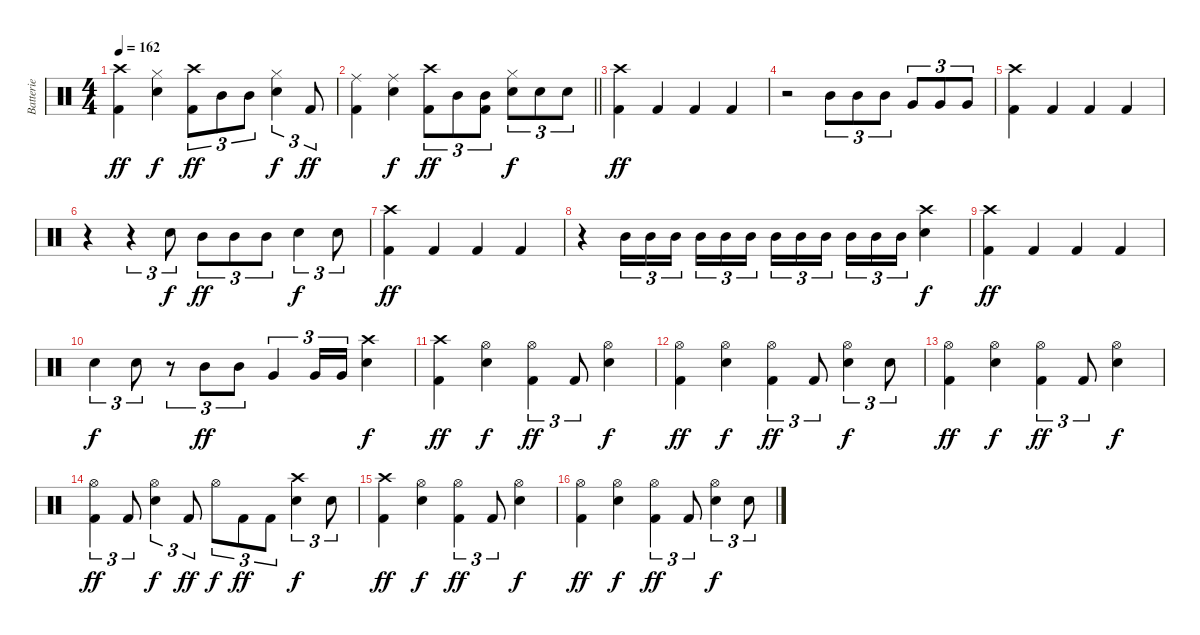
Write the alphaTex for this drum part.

\track ("Batterie" "Batterie") {instrument percussion}
\staff {score}
\articulation defaults
\ts (4 4)
\tempo 162
\clef neutral
\ks c
("Crash high (hit)" "Kick (hit) 2").4{dy ff} ("Hi-Hat (closed)" "Snare (hit) 2").4{dy f} ("Crash high (hit)" "Kick (hit) 2").8{tu (3 2) dy ff} "Mid Tom (hit)".8{tu (3 2)} "Mid Tom (hit)".8{tu (3 2)} ("Hi-Hat (closed)" "Snare (hit) 2").4{tu (3 2) dy f} "Kick (hit) 2".8{tu (3 2) dy ff} |
\barLineRight lightlight
("Ride (middle)" "Kick (hit) 2").4 ("Ride (middle)" "Snare (hit) 2").4{dy f} ("Crash high (hit)" "Kick (hit) 2").8{tu (3 2) dy ff} "Mid Tom (hit)".8{tu (3 2)} ("Mid Tom (hit)" "Kick (hit) 2").8{tu (3 2)} ("Hi-Hat (closed)" "Snare (hit) 2").8{tu (3 2) dy f} "Snare (hit) 2".8{tu (3 2)} "Snare (hit) 2".8{tu (3 2)} |
("Crash high (hit)" "Kick (hit) 2").4{dy ff} "Kick (hit) 2".4 "Kick (hit) 2".4 "Kick (hit) 2".4 |
r.2 "Mid Tom (hit)".8{tu (3 2)} "Mid Tom (hit)".8{tu (3 2)} "Mid Tom (hit)".8{tu (3 2)} "Very Low Tom (hit)".8{tu (3 2)} "Very Low Tom (hit)".8{tu (3 2)} "Very Low Tom (hit)".8{tu (3 2)} |
("Crash high (hit)" "Kick (hit) 2").4 "Kick (hit) 2".4 "Kick (hit) 2".4 "Kick (hit) 2".4 |
r.4 r.4{tu (3 2)} "Snare (hit) 2".8{tu (3 2) dy f} "Mid Tom (hit)".8{tu (3 2) dy ff} "Mid Tom (hit)".8{tu (3 2)} "Mid Tom (hit)".8{tu (3 2)} "Snare (hit) 2".4{tu (3 2) dy f} "Snare (hit) 2".8{tu (3 2)} |
("Crash high (hit)" "Kick (hit) 2").4{dy ff} "Kick (hit) 2".4 "Kick (hit) 2".4 "Kick (hit) 2".4 |
r.4 "Mid Tom (hit)".16{tu (3 2)} "Mid Tom (hit)".16{tu (3 2)} "Mid Tom (hit)".16{tu (3 2) beam splitsecondary} "Mid Tom (hit)".16{tu (3 2)} "Mid Tom (hit)".16{tu (3 2)} "Mid Tom (hit)".16{tu (3 2)} "Mid Tom (hit)".16{tu (3 2)} "Mid Tom (hit)".16{tu (3 2)} "Mid Tom (hit)".16{tu (3 2) beam splitsecondary} "Mid Tom (hit)".16{tu (3 2)} "Mid Tom (hit)".16{tu (3 2)} "Mid Tom (hit)".16{tu (3 2)} ("Crash high (hit)" "Snare (hit) 2").4{dy f} |
("Crash high (hit)" "Kick (hit) 2").4{dy ff} "Kick (hit) 2".4 "Kick (hit) 2".4 "Kick (hit) 2".4 |
"Snare (hit) 2".4{tu (3 2) dy f} "Snare (hit) 2".8{tu (3 2)} r.8{tu (3 2)} "Mid Tom (hit)".8{tu (3 2) dy ff} "Mid Tom (hit)".8{tu (3 2)} "Very Low Tom (hit)".4{tu (3 2)} "Very Low Tom (hit)".16{tu (3 2)} "Very Low Tom (hit)".16{tu (3 2)} ("Crash high (hit)" "Snare (hit) 2").4{dy f} |
("Crash high (hit)" "Kick (hit) 2").4{dy ff} ("Hi-Hat (open)" "Snare (hit) 2").4{dy f} ("Hi-Hat (open)" "Kick (hit) 2").4{tu (3 2) dy ff} "Kick (hit) 2".8{tu (3 2)} ("Hi-Hat (open)" "Snare (hit) 2").4{dy f} |
("Hi-Hat (open)" "Kick (hit) 2").4{dy ff} ("Hi-Hat (open)" "Snare (hit) 2").4{dy f} ("Hi-Hat (open)" "Kick (hit) 2").4{tu (3 2) dy ff} "Kick (hit) 2".8{tu (3 2)} ("Hi-Hat (open)" "Snare (hit) 2").4{tu (3 2) dy f} "Snare (hit) 2".8{tu (3 2)} |
("Hi-Hat (open)" "Kick (hit) 2").4{dy ff} ("Hi-Hat (open)" "Snare (hit) 2").4{dy f} ("Hi-Hat (open)" "Kick (hit) 2").4{tu (3 2) dy ff} "Kick (hit) 2".8{tu (3 2)} ("Hi-Hat (open)" "Snare (hit) 2").4{dy f} |
("Hi-Hat (open)" "Kick (hit) 2").4{tu (3 2) dy ff} "Kick (hit) 2".8{tu (3 2)} ("Hi-Hat (open)" "Snare (hit) 2").4{tu (3 2) dy f} "Kick (hit) 2".8{tu (3 2) dy ff} "Hi-Hat (open)".8{tu (3 2) dy f} "Kick (hit) 2".8{tu (3 2) dy ff} "Kick (hit) 2".8{tu (3 2)} ("Crash high (hit)" "Snare (hit) 2").4{tu (3 2) dy f} "Snare (hit) 2".8{tu (3 2)} |
("Crash high (hit)" "Kick (hit) 2").4{dy ff} ("Hi-Hat (open)" "Snare (hit) 2").4{dy f} ("Hi-Hat (open)" "Kick (hit) 2").4{tu (3 2) dy ff} "Kick (hit) 2".8{tu (3 2)} ("Hi-Hat (open)" "Snare (hit) 2").4{dy f} |
("Hi-Hat (open)" "Kick (hit) 2").4{dy ff} ("Hi-Hat (open)" "Snare (hit) 2").4{dy f} ("Hi-Hat (open)" "Kick (hit) 2").4{tu (3 2) dy ff} "Kick (hit) 2".8{tu (3 2)} ("Hi-Hat (open)" "Snare (hit) 2").4{tu (3 2) dy f} "Snare (hit) 2".8{tu (3 2)}
